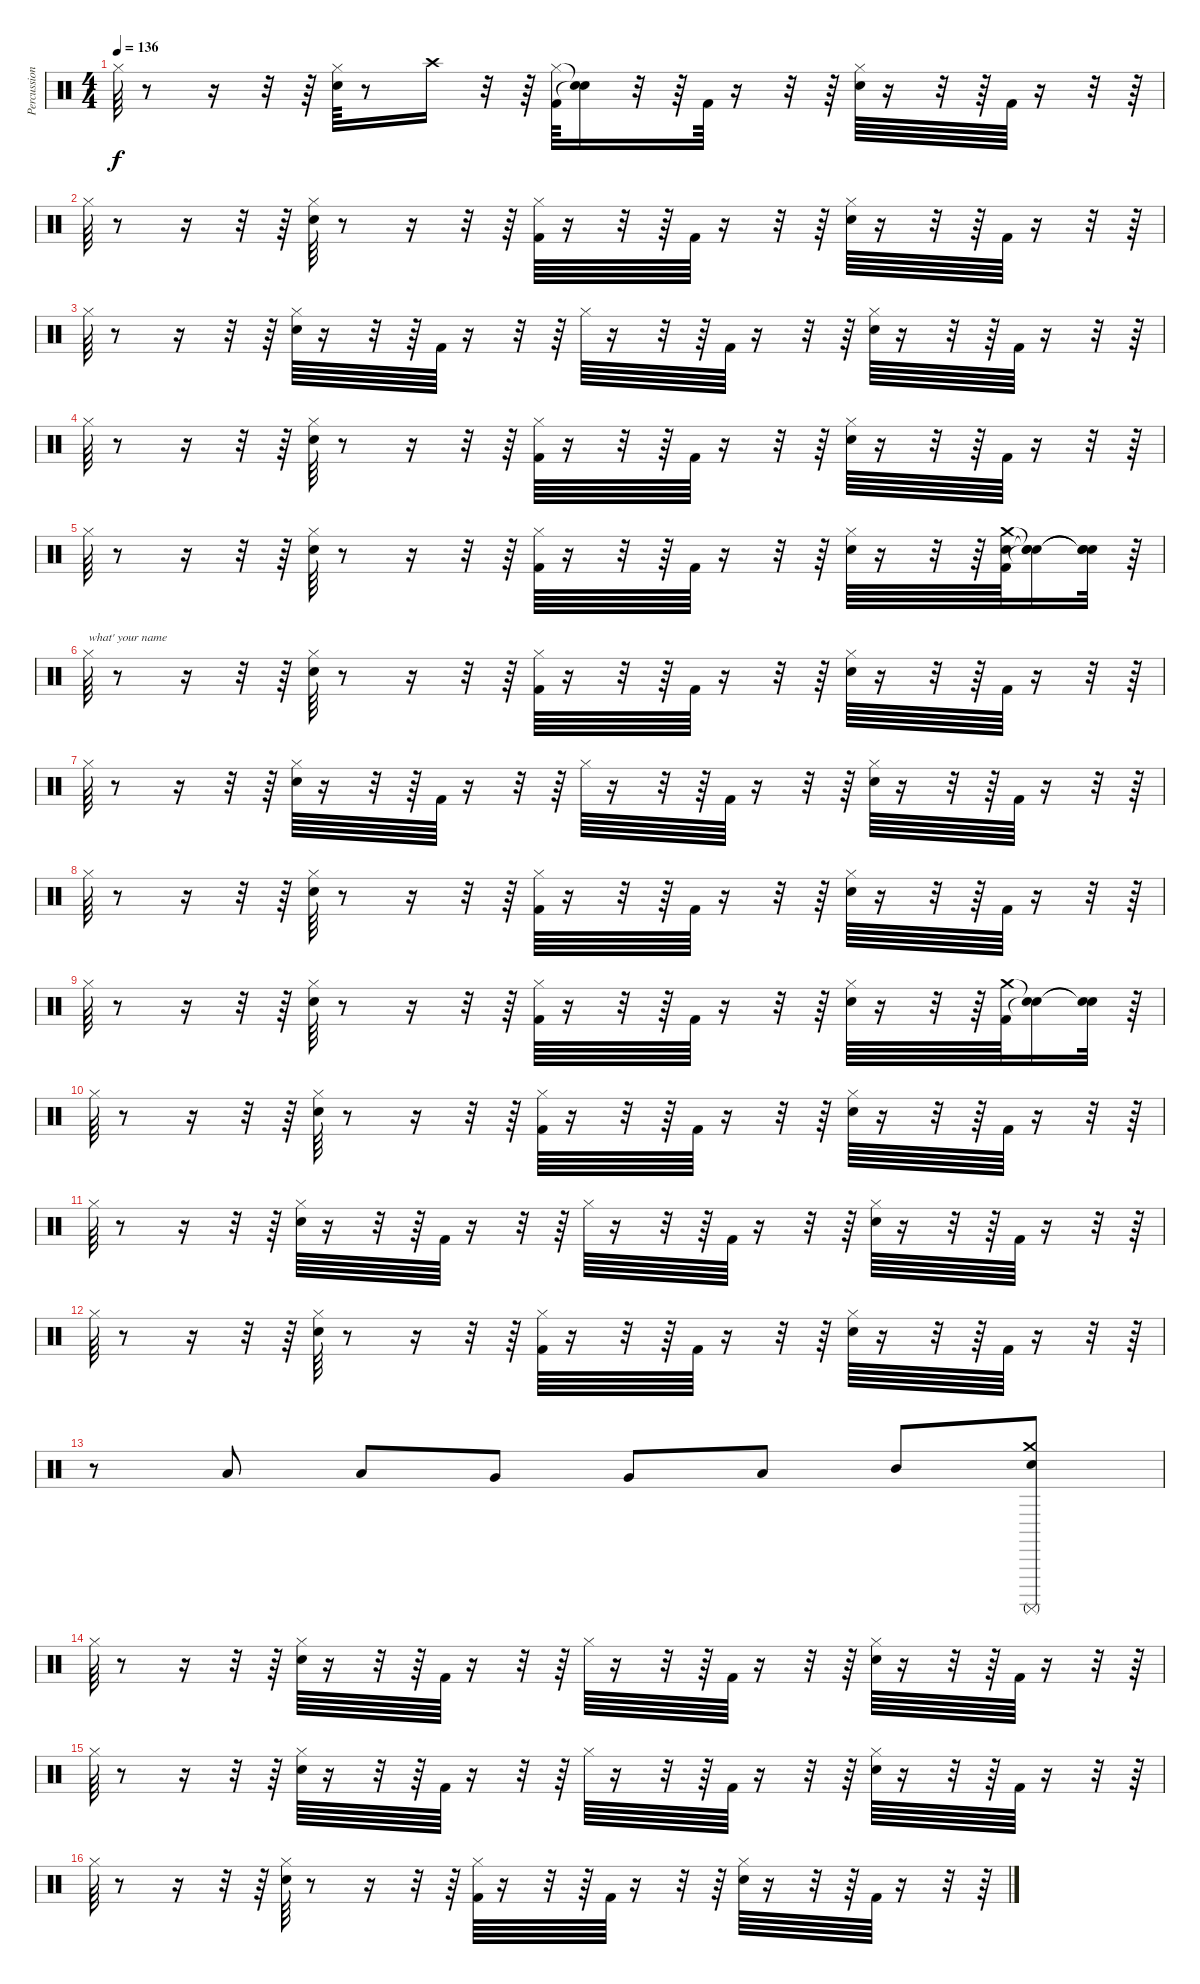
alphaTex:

\track ("Percussions" "Percussion") {instrument percussion}
\staff {score}
\articulation defaults
\ts (4 4)
\tempo 136
\clef neutral
\ks c "Hi-Hat (closed)".64{dy f}
r.8 r.16 r.32 r.64 ("Snare (hit) 2" "Hi-Hat (closed)").64 r.8 "Crash high (hit)".16 r.32 r.64 ("Kick (hit) 2" "Hi-Hat (closed)").64 ("Snare (hit)"{t} "Snare (hit)"{t}).16 r.32 r.64 "Kick (hit) 2".64 r.16 r.32 r.64 ("Snare (hit) 2" "Hi-Hat (closed)").64 r.16 r.32 r.64 "Kick (hit) 2".64 r.16 r.32 r.64 |
"Hi-Hat (closed)".64 r.8 r.16 r.32 r.64 ("Snare (hit) 2" "Hi-Hat (closed)").64 r.8 r.16 r.32 r.64 ("Kick (hit) 2" "Hi-Hat (closed)").64 r.16 r.32 r.64 "Kick (hit) 2".64 r.16 r.32 r.64 ("Snare (hit) 2" "Hi-Hat (closed)").64 r.16 r.32 r.64 "Kick (hit) 2".64 r.16 r.32 r.64 |
"Hi-Hat (closed)".64 r.8 r.16 r.32 r.64 ("Snare (hit) 2" "Hi-Hat (closed)").64 r.16 r.32 r.64 "Kick (hit) 2".64 r.16 r.32 r.64 "Hi-Hat (closed)".64 r.16 r.32 r.64 "Kick (hit) 2".64 r.16 r.32 r.64 ("Snare (hit) 2" "Hi-Hat (closed)").64 r.16 r.32 r.64 "Kick (hit) 2".64 r.16 r.32 r.64 |
"Hi-Hat (closed)".64 r.8 r.16 r.32 r.64 ("Snare (hit) 2" "Hi-Hat (closed)").64 r.8 r.16 r.32 r.64 ("Kick (hit) 2" "Hi-Hat (closed)").64 r.16 r.32 r.64 "Kick (hit) 2".64 r.16 r.32 r.64 ("Snare (hit) 2" "Hi-Hat (closed)").64 r.16 r.32 r.64 "Kick (hit) 2".64 r.16 r.32 r.64 |
"Hi-Hat (closed)".64 r.8 r.16 r.32 r.64 ("Snare (hit) 2" "Hi-Hat (closed)").64 r.8 r.16 r.32 r.64 ("Kick (hit) 2" "Hi-Hat (closed)").64 r.16 r.32 r.64 "Kick (hit) 2".64 r.16 r.32 r.64 ("Snare (hit) 2" "Hi-Hat (closed)").64 r.16 r.32 r.64 ("Kick (hit) 2" "Snare (hit) 2" "Crash medium (hit)").64 ("Snare (hit)"{t} "Snare (hit)"{t} "Snare (hit)"{t}).16 ("Snare (hit)"{t} "Snare (hit)"{t} "Snare (hit)"{t}).32 r.64 |
"Hi-Hat (closed)".64{txt "what' your name"} r.8 r.16 r.32 r.64 ("Snare (hit) 2" "Hi-Hat (closed)").64 r.8 r.16 r.32 r.64 ("Kick (hit) 2" "Hi-Hat (closed)").64 r.16 r.32 r.64 "Kick (hit) 2".64 r.16 r.32 r.64 ("Snare (hit) 2" "Hi-Hat (closed)").64 r.16 r.32 r.64 "Kick (hit) 2".64 r.16 r.32 r.64 |
"Hi-Hat (closed)".64 r.8 r.16 r.32 r.64 ("Snare (hit) 2" "Hi-Hat (closed)").64 r.16 r.32 r.64 "Kick (hit) 2".64 r.16 r.32 r.64 "Hi-Hat (closed)".64 r.16 r.32 r.64 "Kick (hit) 2".64 r.16 r.32 r.64 ("Snare (hit) 2" "Hi-Hat (closed)").64 r.16 r.32 r.64 "Kick (hit) 2".64 r.16 r.32 r.64 |
"Hi-Hat (closed)".64 r.8 r.16 r.32 r.64 ("Snare (hit) 2" "Hi-Hat (closed)").64 r.8 r.16 r.32 r.64 ("Kick (hit) 2" "Hi-Hat (closed)").64 r.16 r.32 r.64 "Kick (hit) 2".64 r.16 r.32 r.64 ("Snare (hit) 2" "Hi-Hat (closed)").64 r.16 r.32 r.64 "Kick (hit) 2".64 r.16 r.32 r.64 |
"Hi-Hat (closed)".64 r.8 r.16 r.32 r.64 ("Snare (hit) 2" "Hi-Hat (closed)").64 r.8 r.16 r.32 r.64 ("Kick (hit) 2" "Hi-Hat (closed)").64 r.16 r.32 r.64 "Kick (hit) 2".64 r.16 r.32 r.64 ("Snare (hit) 2" "Hi-Hat (closed)").64 r.16 r.32 r.64 ("Kick (hit) 2" "Crash medium (hit)").64 ("Snare (hit)"{t} "Snare (hit)"{t}).16 ("Snare (hit)"{t} "Snare (hit)"{t}).32 r.64 |
"Hi-Hat (closed)".64 r.8 r.16 r.32 r.64 ("Snare (hit) 2" "Hi-Hat (closed)").64 r.8 r.16 r.32 r.64 ("Kick (hit) 2" "Hi-Hat (closed)").64 r.16 r.32 r.64 "Kick (hit) 2".64 r.16 r.32 r.64 ("Snare (hit) 2" "Hi-Hat (closed)").64 r.16 r.32 r.64 "Kick (hit) 2".64 r.16 r.32 r.64 |
"Hi-Hat (closed)".64 r.8 r.16 r.32 r.64 ("Snare (hit) 2" "Hi-Hat (closed)").64 r.16 r.32 r.64 "Kick (hit) 2".64 r.16 r.32 r.64 "Hi-Hat (closed)".64 r.16 r.32 r.64 "Kick (hit) 2".64 r.16 r.32 r.64 ("Snare (hit) 2" "Hi-Hat (closed)").64 r.16 r.32 r.64 "Kick (hit) 2".64 r.16 r.32 r.64 |
"Hi-Hat (closed)".64 r.8 r.16 r.32 r.64 ("Snare (hit) 2" "Hi-Hat (closed)").64 r.8 r.16 r.32 r.64 ("Kick (hit) 2" "Hi-Hat (closed)").64 r.16 r.32 r.64 "Kick (hit) 2".64 r.16 r.32 r.64 ("Snare (hit) 2" "Hi-Hat (closed)").64 r.16 r.32 r.64 "Kick (hit) 2".64 r.16 r.32 r.64 |
r.8 "Low Floor Tom (hit)".8 "Low Floor Tom (hit)".8 "Very Low Tom (hit)".8 "Very Low Tom (hit)".8 "Low Tom (hit)".8 "Mid Tom (hit)".8 ("Snare (hit) 2" "Crash medium (hit)" "Surdo (mute)").8 |
"Hi-Hat (closed)".64 r.8 r.16 r.32 r.64 ("Snare (hit) 2" "Hi-Hat (closed)").64 r.16 r.32 r.64 "Kick (hit) 2".64 r.16 r.32 r.64 "Hi-Hat (closed)".64 r.16 r.32 r.64 "Kick (hit) 2".64 r.16 r.32 r.64 ("Snare (hit) 2" "Hi-Hat (closed)").64 r.16 r.32 r.64 "Kick (hit) 2".64 r.16 r.32 r.64 |
"Hi-Hat (closed)".64 r.8 r.16 r.32 r.64 ("Snare (hit) 2" "Hi-Hat (closed)").64 r.16 r.32 r.64 "Kick (hit) 2".64 r.16 r.32 r.64 "Hi-Hat (closed)".64 r.16 r.32 r.64 "Kick (hit) 2".64 r.16 r.32 r.64 ("Snare (hit) 2" "Hi-Hat (closed)").64 r.16 r.32 r.64 "Kick (hit) 2".64 r.16 r.32 r.64 |
"Hi-Hat (closed)".64 r.8 r.16 r.32 r.64 ("Snare (hit) 2" "Hi-Hat (closed)").64 r.8 r.16 r.32 r.64 ("Kick (hit) 2" "Hi-Hat (closed)").64 r.16 r.32 r.64 "Kick (hit) 2".64 r.16 r.32 r.64 ("Snare (hit) 2" "Hi-Hat (closed)").64 r.16 r.32 r.64 "Kick (hit) 2".64 r.16 r.32 r.64
